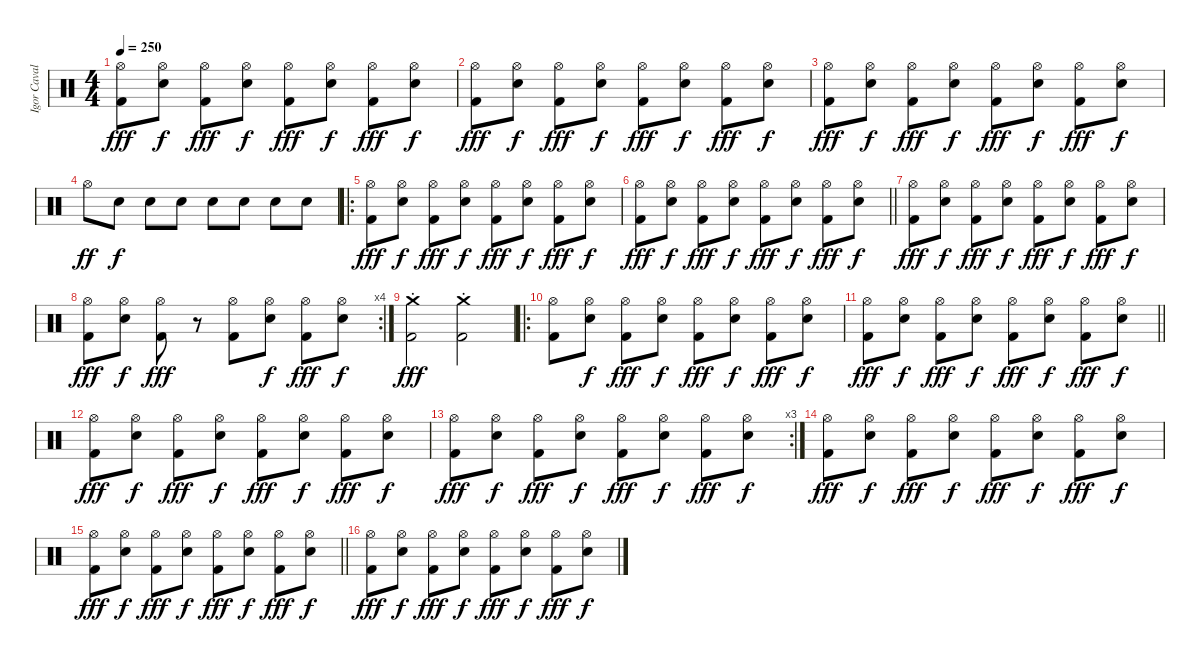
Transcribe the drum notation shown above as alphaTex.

\track ("Igor Cavalera" "Igor Caval") {instrument percussion}
\staff {score}
\articulation defaults
\ts (4 4)
\tempo 250
\clef neutral
\ks c
("Hi-Hat (open)" "Kick (hit) 2").8{dy fff} ("Electric Snare (hit)" "Hi-Hat (open)").8{dy f} ("Hi-Hat (open)" "Kick (hit) 2").8{dy fff} ("Electric Snare (hit)" "Hi-Hat (open)").8{dy f} ("Hi-Hat (open)" "Kick (hit) 2").8{dy fff} ("Electric Snare (hit)" "Hi-Hat (open)").8{dy f} ("Hi-Hat (open)" "Kick (hit) 2").8{dy fff} ("Electric Snare (hit)" "Hi-Hat (open)").8{dy f} |
("Hi-Hat (open)" "Kick (hit) 2").8{dy fff} ("Electric Snare (hit)" "Hi-Hat (open)").8{dy f} ("Hi-Hat (open)" "Kick (hit) 2").8{dy fff} ("Electric Snare (hit)" "Hi-Hat (open)").8{dy f} ("Hi-Hat (open)" "Kick (hit) 2").8{dy fff} ("Electric Snare (hit)" "Hi-Hat (open)").8{dy f} ("Hi-Hat (open)" "Kick (hit) 2").8{dy fff} ("Electric Snare (hit)" "Hi-Hat (open)").8{dy f} |
("Hi-Hat (open)" "Kick (hit) 2").8{dy fff} ("Electric Snare (hit)" "Hi-Hat (open)").8{dy f} ("Hi-Hat (open)" "Kick (hit) 2").8{dy fff} ("Electric Snare (hit)" "Hi-Hat (open)").8{dy f} ("Hi-Hat (open)" "Kick (hit) 2").8{dy fff} ("Electric Snare (hit)" "Hi-Hat (open)").8{dy f} ("Hi-Hat (open)" "Kick (hit) 2").8{dy fff} ("Electric Snare (hit)" "Hi-Hat (open)").8{dy f} |
"Hi-Hat (open)".8{dy ff} "Electric Snare (hit)".8{dy f} "Electric Snare (hit)".8 "Electric Snare (hit)".8 "Electric Snare (hit)".8 "Electric Snare (hit)".8 "Electric Snare (hit)".8 "Electric Snare (hit)".8 |
\ro
("Hi-Hat (open)" "Kick (hit) 2").8{dy fff} ("Electric Snare (hit)" "Hi-Hat (open)").8{dy f} ("Hi-Hat (open)" "Kick (hit) 2").8{dy fff} ("Electric Snare (hit)" "Hi-Hat (open)").8{dy f} ("Hi-Hat (open)" "Kick (hit) 2").8{dy fff} ("Electric Snare (hit)" "Hi-Hat (open)").8{dy f} ("Hi-Hat (open)" "Kick (hit) 2").8{dy fff} ("Electric Snare (hit)" "Hi-Hat (open)").8{dy f} |
\barLineRight lightlight
("Hi-Hat (open)" "Kick (hit) 2").8{dy fff} ("Electric Snare (hit)" "Hi-Hat (open)").8{dy f} ("Hi-Hat (open)" "Kick (hit) 2").8{dy fff} ("Electric Snare (hit)" "Hi-Hat (open)").8{dy f} ("Hi-Hat (open)" "Kick (hit) 2").8{dy fff} ("Electric Snare (hit)" "Hi-Hat (open)").8{dy f} ("Hi-Hat (open)" "Kick (hit) 2").8{dy fff} ("Electric Snare (hit)" "Hi-Hat (open)").8{dy f} |
\section ("" "")
("Hi-Hat (open)" "Kick (hit) 2").8{dy fff} ("Electric Snare (hit)" "Hi-Hat (open)").8{dy f} ("Hi-Hat (open)" "Kick (hit) 2").8{dy fff} ("Electric Snare (hit)" "Hi-Hat (open)").8{dy f} ("Hi-Hat (open)" "Kick (hit) 2").8{dy fff} ("Electric Snare (hit)" "Hi-Hat (open)").8{dy f} ("Hi-Hat (open)" "Kick (hit) 2").8{dy fff} ("Electric Snare (hit)" "Hi-Hat (open)").8{dy f} |
\rc 4
("Hi-Hat (open)" "Kick (hit) 2").8{dy fff} ("Electric Snare (hit)" "Hi-Hat (open)").8{dy f} ("Hi-Hat (open)" "Kick (hit) 2").8{dy fff} r.8 ("Hi-Hat (open)" "Kick (hit) 2").8 ("Electric Snare (hit)" "Hi-Hat (open)").8{dy f} ("Hi-Hat (open)" "Kick (hit) 2").8{dy fff} ("Electric Snare (hit)" "Hi-Hat (open)").8{dy f} |
("Crash medium (hit)" "Kick (hit) 2"{st}).2{dy fff} ("Crash medium (hit)" "Kick (hit) 2"{st}).2 |
\ro
("Hi-Hat (open)" "Kick (hit) 2").8 ("Electric Snare (hit)" "Hi-Hat (open)").8{dy f} ("Hi-Hat (open)" "Kick (hit) 2").8{dy fff} ("Electric Snare (hit)" "Hi-Hat (open)").8{dy f} ("Hi-Hat (open)" "Kick (hit) 2").8{dy fff} ("Electric Snare (hit)" "Hi-Hat (open)").8{dy f} ("Hi-Hat (open)" "Kick (hit) 2").8{dy fff} ("Electric Snare (hit)" "Hi-Hat (open)").8{dy f} |
\barLineRight lightlight
("Hi-Hat (open)" "Kick (hit) 2").8{dy fff} ("Electric Snare (hit)" "Hi-Hat (open)").8{dy f} ("Hi-Hat (open)" "Kick (hit) 2").8{dy fff} ("Electric Snare (hit)" "Hi-Hat (open)").8{dy f} ("Hi-Hat (open)" "Kick (hit) 2").8{dy fff} ("Electric Snare (hit)" "Hi-Hat (open)").8{dy f} ("Hi-Hat (open)" "Kick (hit) 2").8{dy fff} ("Electric Snare (hit)" "Hi-Hat (open)").8{dy f} |
("Hi-Hat (open)" "Kick (hit) 2").8{dy fff} ("Electric Snare (hit)" "Hi-Hat (open)").8{dy f} ("Hi-Hat (open)" "Kick (hit) 2").8{dy fff} ("Electric Snare (hit)" "Hi-Hat (open)").8{dy f} ("Hi-Hat (open)" "Kick (hit) 2").8{dy fff} ("Electric Snare (hit)" "Hi-Hat (open)").8{dy f} ("Hi-Hat (open)" "Kick (hit) 2").8{dy fff} ("Electric Snare (hit)" "Hi-Hat (open)").8{dy f} |
\rc 3
("Hi-Hat (open)" "Kick (hit) 2").8{dy fff} ("Electric Snare (hit)" "Hi-Hat (open)").8{dy f} ("Hi-Hat (open)" "Kick (hit) 2").8{dy fff} ("Electric Snare (hit)" "Hi-Hat (open)").8{dy f} ("Hi-Hat (open)" "Kick (hit) 2").8{dy fff} ("Electric Snare (hit)" "Hi-Hat (open)").8{dy f} ("Hi-Hat (open)" "Kick (hit) 2").8{dy fff} ("Electric Snare (hit)" "Hi-Hat (open)").8{dy f} |
("Hi-Hat (open)" "Kick (hit) 2").8{dy fff} ("Electric Snare (hit)" "Hi-Hat (open)").8{dy f} ("Hi-Hat (open)" "Kick (hit) 2").8{dy fff} ("Electric Snare (hit)" "Hi-Hat (open)").8{dy f} ("Hi-Hat (open)" "Kick (hit) 2").8{dy fff} ("Electric Snare (hit)" "Hi-Hat (open)").8{dy f} ("Hi-Hat (open)" "Kick (hit) 2").8{dy fff} ("Electric Snare (hit)" "Hi-Hat (open)").8{dy f} |
\barLineRight lightlight
("Hi-Hat (open)" "Kick (hit) 2").8{dy fff} ("Electric Snare (hit)" "Hi-Hat (open)").8{dy f} ("Hi-Hat (open)" "Kick (hit) 2").8{dy fff} ("Electric Snare (hit)" "Hi-Hat (open)").8{dy f} ("Hi-Hat (open)" "Kick (hit) 2").8{dy fff} ("Electric Snare (hit)" "Hi-Hat (open)").8{dy f} ("Hi-Hat (open)" "Kick (hit) 2").8{dy fff} ("Electric Snare (hit)" "Hi-Hat (open)").8{dy f} |
("Hi-Hat (open)" "Kick (hit) 2").8{dy fff} ("Electric Snare (hit)" "Hi-Hat (open)").8{dy f} ("Hi-Hat (open)" "Kick (hit) 2").8{dy fff} ("Electric Snare (hit)" "Hi-Hat (open)").8{dy f} ("Hi-Hat (open)" "Kick (hit) 2").8{dy fff} ("Electric Snare (hit)" "Hi-Hat (open)").8{dy f} ("Hi-Hat (open)" "Kick (hit) 2").8{dy fff} ("Electric Snare (hit)" "Hi-Hat (open)").8{dy f}
